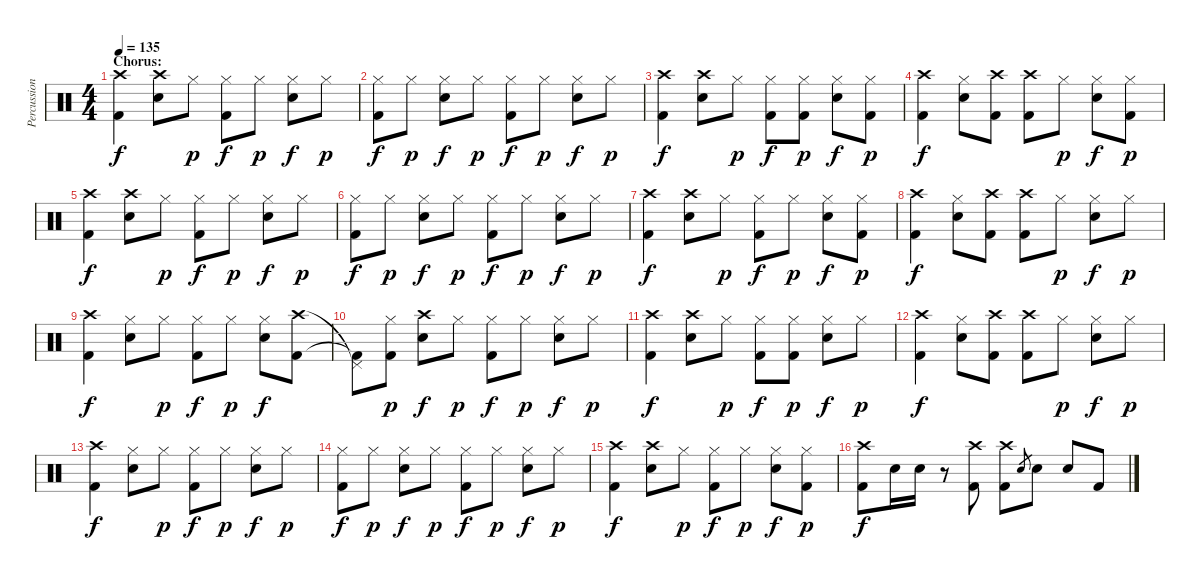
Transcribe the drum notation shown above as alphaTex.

\track ("Percussion" "Percussion") {instrument percussion}
\staff {score}
\articulation defaults
\ts (4 4)
\section ("" "Chorus:")
\tempo 135
\clef neutral
\ks c
("Crash high (hit)" "Kick (hit) 2").4{dy f} ("Crash high (hit)" "Snare (hit) 2").8 "Hi-Hat (closed)".8{dy p} ("Hi-Hat (closed)" "Kick (hit) 2").8{dy f} "Hi-Hat (closed)".8{dy p} ("Hi-Hat (closed)" "Snare (hit) 2").8{dy f} "Hi-Hat (closed)".8{dy p} |
("Hi-Hat (closed)" "Kick (hit) 2").8{dy f} "Hi-Hat (closed)".8{dy p} ("Hi-Hat (closed)" "Snare (hit) 2").8{dy f} "Hi-Hat (closed)".8{dy p} ("Hi-Hat (closed)" "Kick (hit) 2").8{dy f} "Hi-Hat (closed)".8{dy p} ("Hi-Hat (closed)" "Snare (hit) 2").8{dy f} "Hi-Hat (closed)".8{dy p} |
("Crash high (hit)" "Kick (hit) 2").4{dy f} ("Crash high (hit)" "Snare (hit) 2").8 "Hi-Hat (closed)".8{dy p} ("Hi-Hat (closed)" "Kick (hit) 2").8{dy f} ("Hi-Hat (closed)" "Kick (hit) 2").8{dy p} ("Hi-Hat (closed)" "Snare (hit) 2").8{dy f} ("Hi-Hat (closed)" "Kick (hit) 2").8{dy p} |
("Crash high (hit)" "Kick (hit) 2").4{dy f} ("Hi-Hat (closed)" "Snare (hit) 2").8 ("Crash high (hit)" "Kick (hit) 2").8 ("Crash high (hit)" "Kick (hit) 2").8 "Hi-Hat (closed)".8{dy p} ("Hi-Hat (closed)" "Snare (hit) 2").8{dy f} ("Hi-Hat (closed)" "Kick (hit) 2").8{dy p} |
("Crash high (hit)" "Kick (hit) 2").4{dy f} ("Crash high (hit)" "Snare (hit) 2").8 "Hi-Hat (closed)".8{dy p} ("Hi-Hat (closed)" "Kick (hit) 2").8{dy f} "Hi-Hat (closed)".8{dy p} ("Hi-Hat (closed)" "Snare (hit) 2").8{dy f} "Hi-Hat (closed)".8{dy p} |
("Hi-Hat (closed)" "Kick (hit) 2").8{dy f} "Hi-Hat (closed)".8{dy p} ("Hi-Hat (closed)" "Snare (hit) 2").8{dy f} "Hi-Hat (closed)".8{dy p} ("Hi-Hat (closed)" "Kick (hit) 2").8{dy f} "Hi-Hat (closed)".8{dy p} ("Hi-Hat (closed)" "Snare (hit) 2").8{dy f} "Hi-Hat (closed)".8{dy p} |
("Crash high (hit)" "Kick (hit) 2").4{dy f} ("Crash high (hit)" "Snare (hit) 2").8 "Hi-Hat (closed)".8{dy p} ("Hi-Hat (closed)" "Kick (hit) 2").8{dy f} "Hi-Hat (closed)".8{dy p} ("Hi-Hat (closed)" "Snare (hit) 2").8{dy f} ("Hi-Hat (closed)" "Kick (hit) 2").8{dy p} |
("Crash high (hit)" "Kick (hit) 2").4{dy f} ("Hi-Hat (closed)" "Snare (hit) 2").8 ("Crash high (hit)" "Kick (hit) 2").8 ("Crash high (hit)" "Kick (hit) 2").8 "Hi-Hat (closed)".8{dy p} ("Hi-Hat (closed)" "Snare (hit) 2").8{dy f} "Hi-Hat (closed)".8{dy p} |
("Crash high (hit)" "Kick (hit) 2").4{dy f} ("Hi-Hat (closed)" "Snare (hit) 2").8 "Hi-Hat (closed)".8{dy p} ("Hi-Hat (closed)" "Kick (hit) 2").8{dy f} "Hi-Hat (closed)".8{dy p} ("Hi-Hat (closed)" "Snare (hit) 2").8{dy f} ("Crash high (hit)" "Kick (hit) 2").8 |
("Pedal Hi-Hat (hit)"{t} "Kick (hit) 2"{t}).8 ("Hi-Hat (closed)" "Kick (hit) 2").8{dy p} ("Crash high (hit)" "Snare (hit) 2").8{dy f} "Hi-Hat (closed)".8{dy p} ("Hi-Hat (closed)" "Kick (hit) 2").8{dy f} "Hi-Hat (closed)".8{dy p} ("Hi-Hat (closed)" "Snare (hit) 2").8{dy f} "Hi-Hat (closed)".8{dy p} |
("Crash high (hit)" "Kick (hit) 2").4{dy f} ("Crash high (hit)" "Snare (hit) 2").8 "Hi-Hat (closed)".8{dy p} ("Hi-Hat (closed)" "Kick (hit) 2").8{dy f} ("Hi-Hat (closed)" "Kick (hit) 2").8{dy p} ("Hi-Hat (closed)" "Snare (hit) 2").8{dy f} "Hi-Hat (closed)".8{dy p} |
("Crash high (hit)" "Kick (hit) 2").4{dy f} ("Hi-Hat (closed)" "Snare (hit) 2").8 ("Crash high (hit)" "Kick (hit) 2").8 ("Crash high (hit)" "Kick (hit) 2").8 "Hi-Hat (closed)".8{dy p} ("Hi-Hat (closed)" "Snare (hit) 2").8{dy f} "Hi-Hat (closed)".8{dy p} |
("Crash high (hit)" "Kick (hit) 2").4{dy f} ("Hi-Hat (closed)" "Snare (hit) 2").8 "Hi-Hat (closed)".8{dy p} ("Hi-Hat (closed)" "Kick (hit) 2").8{dy f} "Hi-Hat (closed)".8{dy p} ("Hi-Hat (closed)" "Snare (hit) 2").8{dy f} "Hi-Hat (closed)".8{dy p} |
("Hi-Hat (closed)" "Kick (hit) 2").8{dy f} "Hi-Hat (closed)".8{dy p} ("Hi-Hat (closed)" "Snare (hit) 2").8{dy f} "Hi-Hat (closed)".8{dy p} ("Hi-Hat (closed)" "Kick (hit) 2").8{dy f} "Hi-Hat (closed)".8{dy p} ("Hi-Hat (closed)" "Snare (hit) 2").8{dy f} "Hi-Hat (closed)".8{dy p} |
("Crash high (hit)" "Kick (hit) 2").4{dy f} ("Crash high (hit)" "Snare (hit) 2").8 "Hi-Hat (closed)".8{dy p} ("Hi-Hat (closed)" "Kick (hit) 2").8{dy f} "Hi-Hat (closed)".8{dy p} ("Hi-Hat (closed)" "Snare (hit) 2").8{dy f} ("Hi-Hat (closed)" "Kick (hit) 2").8{dy p} |
("Crash high (hit)" "Kick (hit) 2").8{dy f} "Snare (hit) 2".16 "Snare (hit) 2".16 r.8 ("Crash high (hit)" "Kick (hit) 2").8 ("Crash high (hit)" "Kick (hit) 2").8 "Snare (hit) 2".8{gr} "Snare (hit) 2".8 "Snare (hit) 2".8 "Kick (hit) 2".8
